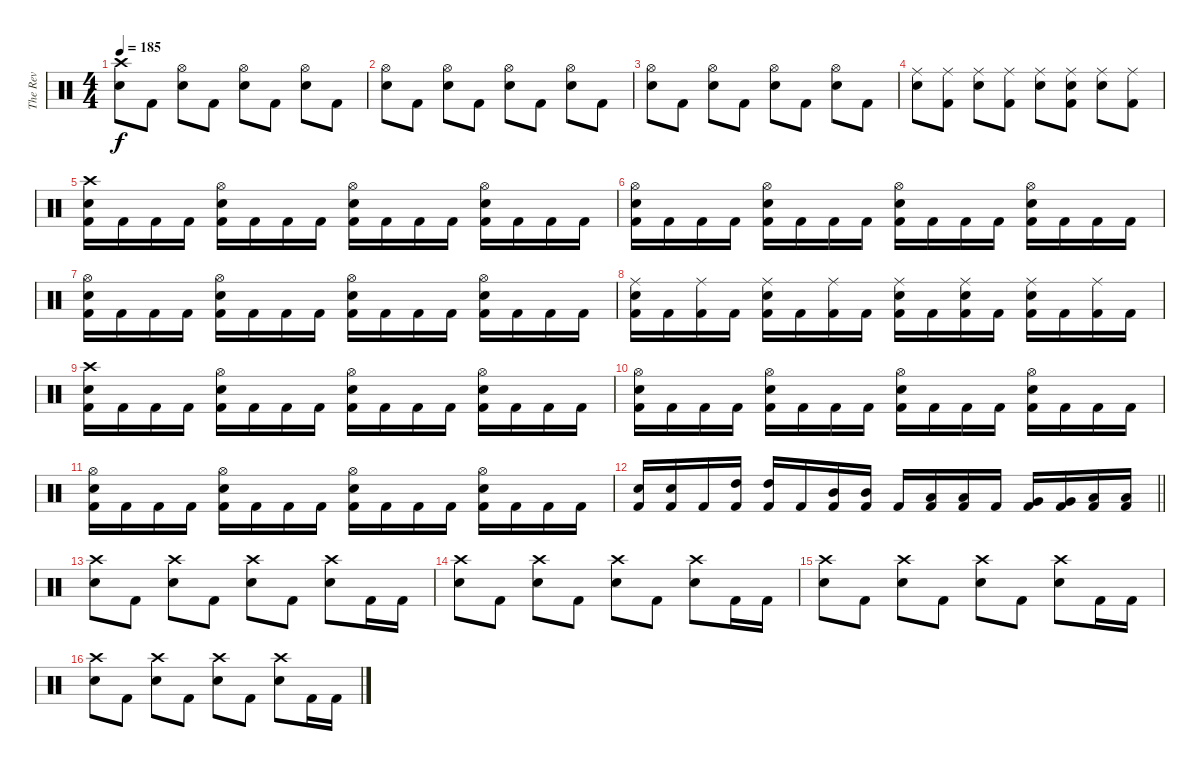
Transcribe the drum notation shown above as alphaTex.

\track ("The Rev" "The Rev") {instrument percussion}
\staff {score}
\articulation defaults
\ts (4 4)
\tempo 185
\clef neutral
\ks c
("Crash high (hit)" "Electric Snare (hit)").8{dy f} "Kick (hit) 2".8 ("Hi-Hat (open)" "Electric Snare (hit)").8 "Kick (hit) 2".8 ("Hi-Hat (open)" "Electric Snare (hit)").8 "Kick (hit) 2".8 ("Hi-Hat (open)" "Electric Snare (hit)").8 "Kick (hit) 2".8 |
("Hi-Hat (open)" "Electric Snare (hit)").8 "Kick (hit) 2".8 ("Hi-Hat (open)" "Electric Snare (hit)").8 "Kick (hit) 2".8 ("Hi-Hat (open)" "Electric Snare (hit)").8 "Kick (hit) 2".8 ("Hi-Hat (open)" "Electric Snare (hit)").8 "Kick (hit) 2".8 |
("Hi-Hat (open)" "Electric Snare (hit)").8 "Kick (hit) 2".8 ("Hi-Hat (open)" "Electric Snare (hit)").8 "Kick (hit) 2".8 ("Hi-Hat (open)" "Electric Snare (hit)").8 "Kick (hit) 2".8 ("Hi-Hat (open)" "Electric Snare (hit)").8 "Kick (hit) 2".8 |
("Ride (middle)" "Electric Snare (hit)").8 ("Ride (middle)" "Kick (hit) 2").8 ("Ride (middle)" "Electric Snare (hit)").8 ("Ride (middle)" "Kick (hit) 2").8 ("Ride (middle)" "Electric Snare (hit)").8 ("Ride (middle)" "Electric Snare (hit)" "Kick (hit) 2").8 ("Ride (middle)" "Electric Snare (hit)").8 ("Ride (middle)" "Kick (hit) 2").8 |
("Crash high (hit)" "Electric Snare (hit)" "Kick (hit) 2").16 "Kick (hit) 2".16 "Kick (hit) 2".16 "Kick (hit) 2".16 ("Hi-Hat (open)" "Electric Snare (hit)" "Kick (hit) 2").16 "Kick (hit) 2".16 "Kick (hit) 2".16 "Kick (hit) 2".16 ("Hi-Hat (open)" "Electric Snare (hit)" "Kick (hit) 2").16 "Kick (hit) 2".16 "Kick (hit) 2".16 "Kick (hit) 2".16 ("Hi-Hat (open)" "Electric Snare (hit)" "Kick (hit) 2").16 "Kick (hit) 2".16 "Kick (hit) 2".16 "Kick (hit) 2".16 |
("Hi-Hat (open)" "Electric Snare (hit)" "Kick (hit) 2").16 "Kick (hit) 2".16 "Kick (hit) 2".16 "Kick (hit) 2".16 ("Hi-Hat (open)" "Electric Snare (hit)" "Kick (hit) 2").16 "Kick (hit) 2".16 "Kick (hit) 2".16 "Kick (hit) 2".16 ("Hi-Hat (open)" "Electric Snare (hit)" "Kick (hit) 2").16 "Kick (hit) 2".16 "Kick (hit) 2".16 "Kick (hit) 2".16 ("Hi-Hat (open)" "Electric Snare (hit)" "Kick (hit) 2").16 "Kick (hit) 2".16 "Kick (hit) 2".16 "Kick (hit) 2".16 |
("Hi-Hat (open)" "Electric Snare (hit)" "Kick (hit) 2").16 "Kick (hit) 2".16 "Kick (hit) 2".16 "Kick (hit) 2".16 ("Hi-Hat (open)" "Electric Snare (hit)" "Kick (hit) 2").16 "Kick (hit) 2".16 "Kick (hit) 2".16 "Kick (hit) 2".16 ("Hi-Hat (open)" "Electric Snare (hit)" "Kick (hit) 2").16 "Kick (hit) 2".16 "Kick (hit) 2".16 "Kick (hit) 2".16 ("Hi-Hat (open)" "Electric Snare (hit)" "Kick (hit) 2").16 "Kick (hit) 2".16 "Kick (hit) 2".16 "Kick (hit) 2".16 |
("Ride (middle)" "Electric Snare (hit)" "Kick (hit) 2").16 "Kick (hit) 2".16 ("Ride (middle)" "Kick (hit) 2").16 "Kick (hit) 2".16 ("Ride (middle)" "Electric Snare (hit)" "Kick (hit) 2").16 "Kick (hit) 2".16 ("Ride (middle)" "Kick (hit) 2").16 "Kick (hit) 2".16 ("Ride (middle)" "Electric Snare (hit)" "Kick (hit) 2").16 "Kick (hit) 2".16 ("Ride (middle)" "Electric Snare (hit)" "Kick (hit) 2").16 "Kick (hit) 2".16 ("Ride (middle)" "Electric Snare (hit)" "Kick (hit) 2").16 "Kick (hit) 2".16 ("Ride (middle)" "Kick (hit) 2").16 "Kick (hit) 2".16 |
("Crash high (hit)" "Electric Snare (hit)" "Kick (hit) 2").16 "Kick (hit) 2".16 "Kick (hit) 2".16 "Kick (hit) 2".16 ("Hi-Hat (open)" "Electric Snare (hit)" "Kick (hit) 2").16 "Kick (hit) 2".16 "Kick (hit) 2".16 "Kick (hit) 2".16 ("Hi-Hat (open)" "Electric Snare (hit)" "Kick (hit) 2").16 "Kick (hit) 2".16 "Kick (hit) 2".16 "Kick (hit) 2".16 ("Hi-Hat (open)" "Electric Snare (hit)" "Kick (hit) 2").16 "Kick (hit) 2".16 "Kick (hit) 2".16 "Kick (hit) 2".16 |
("Hi-Hat (open)" "Electric Snare (hit)" "Kick (hit) 2").16 "Kick (hit) 2".16 "Kick (hit) 2".16 "Kick (hit) 2".16 ("Hi-Hat (open)" "Electric Snare (hit)" "Kick (hit) 2").16 "Kick (hit) 2".16 "Kick (hit) 2".16 "Kick (hit) 2".16 ("Hi-Hat (open)" "Electric Snare (hit)" "Kick (hit) 2").16 "Kick (hit) 2".16 "Kick (hit) 2".16 "Kick (hit) 2".16 ("Hi-Hat (open)" "Electric Snare (hit)" "Kick (hit) 2").16 "Kick (hit) 2".16 "Kick (hit) 2".16 "Kick (hit) 2".16 |
("Hi-Hat (open)" "Electric Snare (hit)" "Kick (hit) 2").16 "Kick (hit) 2".16 "Kick (hit) 2".16 "Kick (hit) 2".16 ("Hi-Hat (open)" "Electric Snare (hit)" "Kick (hit) 2").16 "Kick (hit) 2".16 "Kick (hit) 2".16 "Kick (hit) 2".16 ("Hi-Hat (open)" "Electric Snare (hit)" "Kick (hit) 2").16 "Kick (hit) 2".16 "Kick (hit) 2".16 "Kick (hit) 2".16 ("Hi-Hat (open)" "Electric Snare (hit)" "Kick (hit) 2").16 "Kick (hit) 2".16 "Kick (hit) 2".16 "Kick (hit) 2".16 |
\barLineRight lightlight
("Electric Snare (hit)" "Kick (hit) 2").16 ("Electric Snare (hit)" "Kick (hit) 2").16 "Kick (hit) 2".16 ("High Tom (hit)" "Kick (hit) 2").16 ("High Tom (hit)" "Kick (hit) 2").16 "Kick (hit) 2".16 ("Mid Tom (hit)" "Kick (hit) 2").16 ("Mid Tom (hit)" "Kick (hit) 2").16 "Kick (hit) 2".16 ("Low Tom (hit)" "Kick (hit) 2").16 ("Low Tom (hit)" "Kick (hit) 2").16 "Kick (hit) 2".16 ("Very Low Tom (hit)" "Kick (hit) 2").16 ("Very Low Tom (hit)" "Kick (hit) 2").16 ("Low Tom (hit)" "Kick (hit) 2").16 ("Low Tom (hit)" "Kick (hit) 2").16 |
("Crash high (hit)" "Electric Snare (hit)").8 "Kick (hit) 2".8 ("Crash high (hit)" "Electric Snare (hit)").8 "Kick (hit) 2".8 ("Crash high (hit)" "Electric Snare (hit)").8 "Kick (hit) 2".8 ("Crash high (hit)" "Electric Snare (hit)").8 "Kick (hit) 2".16 "Kick (hit) 2".16 |
("Crash high (hit)" "Electric Snare (hit)").8 "Kick (hit) 2".8 ("Crash high (hit)" "Electric Snare (hit)").8 "Kick (hit) 2".8 ("Crash high (hit)" "Electric Snare (hit)").8 "Kick (hit) 2".8 ("Crash high (hit)" "Electric Snare (hit)").8 "Kick (hit) 2".16 "Kick (hit) 2".16 |
("Crash high (hit)" "Electric Snare (hit)").8 "Kick (hit) 2".8 ("Crash high (hit)" "Electric Snare (hit)").8 "Kick (hit) 2".8 ("Crash high (hit)" "Electric Snare (hit)").8 "Kick (hit) 2".8 ("Crash high (hit)" "Electric Snare (hit)").8 "Kick (hit) 2".16 "Kick (hit) 2".16 |
("Crash high (hit)" "Electric Snare (hit)").8 "Kick (hit) 2".8 ("Crash high (hit)" "Electric Snare (hit)").8 "Kick (hit) 2".8 ("Crash high (hit)" "Electric Snare (hit)").8 "Kick (hit) 2".8 ("Crash high (hit)" "Electric Snare (hit)").8 "Kick (hit) 2".16 "Kick (hit) 2".16
